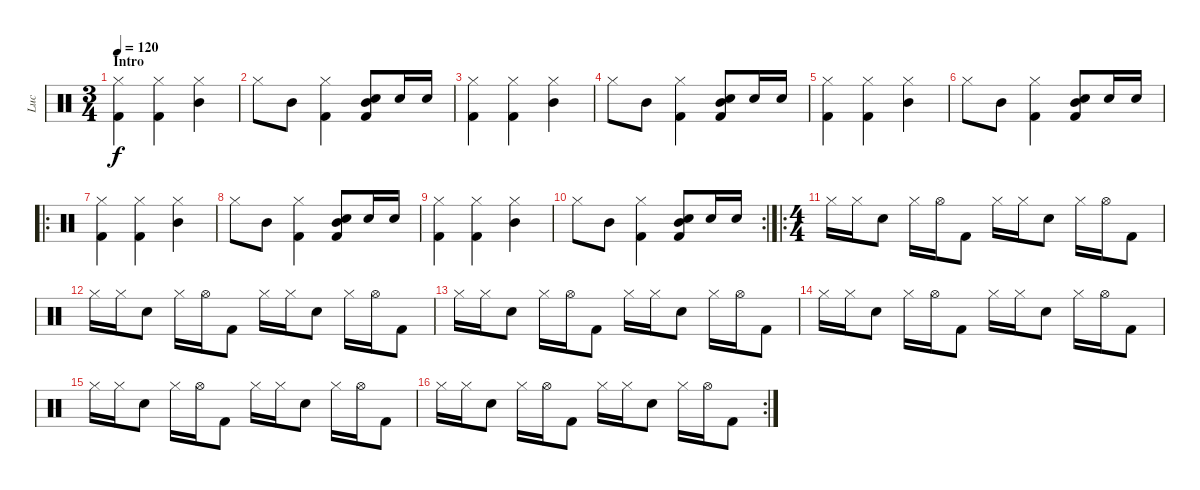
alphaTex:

\track ("Luc" "Luc") {instrument percussion}
\staff {score}
\articulation defaults
\ts (3 4)
\section ("" "Intro")
\tempo 120
\clef neutral
\ks c
("Hi-Hat (closed)" "Kick (hit) 2").4{dy f} ("Hi-Hat (closed)" "Kick (hit) 2").4 ("Hi-Hat (closed)" "Mid Tom (hit)").4 |
"Hi-Hat (closed)".8 "Mid Tom (hit)".8 ("Hi-Hat (closed)" "Kick (hit) 2").4 ("Mid Tom (hit)" "Snare (hit) 2" "Kick (hit) 2").8 "Snare (hit) 2".16 "Snare (hit) 2".16 |
("Hi-Hat (closed)" "Kick (hit) 2").4 ("Hi-Hat (closed)" "Kick (hit) 2").4 ("Hi-Hat (closed)" "Mid Tom (hit)").4 |
"Hi-Hat (closed)".8 "Mid Tom (hit)".8 ("Hi-Hat (closed)" "Kick (hit) 2").4 ("Mid Tom (hit)" "Snare (hit) 2" "Kick (hit) 2").8 "Snare (hit) 2".16 "Snare (hit) 2".16 |
("Hi-Hat (closed)" "Kick (hit) 2").4 ("Hi-Hat (closed)" "Kick (hit) 2").4 ("Hi-Hat (closed)" "Mid Tom (hit)").4 |
"Hi-Hat (closed)".8 "Mid Tom (hit)".8 ("Hi-Hat (closed)" "Kick (hit) 2").4 ("Mid Tom (hit)" "Snare (hit) 2" "Kick (hit) 2").8 "Snare (hit) 2".16 "Snare (hit) 2".16 |
\ro
("Hi-Hat (closed)" "Kick (hit) 2").4 ("Hi-Hat (closed)" "Kick (hit) 2").4 ("Hi-Hat (closed)" "Mid Tom (hit)").4 |
"Hi-Hat (closed)".8 "Mid Tom (hit)".8 ("Hi-Hat (closed)" "Kick (hit) 2").4 ("Mid Tom (hit)" "Snare (hit) 2" "Kick (hit) 2").8 "Snare (hit) 2".16 "Snare (hit) 2".16 |
("Hi-Hat (closed)" "Kick (hit) 2").4 ("Hi-Hat (closed)" "Kick (hit) 2").4 ("Hi-Hat (closed)" "Mid Tom (hit)").4 |
\rc 2 "Hi-Hat (closed)".8 "Mid Tom (hit)".8
("Hi-Hat (closed)" "Kick (hit) 2").4 ("Mid Tom (hit)" "Snare (hit) 2" "Kick (hit) 2").8 "Snare (hit) 2".16 "Snare (hit) 2".16 |
\ro
\ts (4 4)
"Hi-Hat (closed)".16 "Hi-Hat (closed)".16 "Snare (hit) 2".8 "Hi-Hat (closed)".16 "Hi-Hat (open)".16 "Kick (hit) 2".8 "Hi-Hat (closed)".16 "Hi-Hat (closed)".16 "Snare (hit) 2".8 "Hi-Hat (closed)".16 "Hi-Hat (open)".16 "Kick (hit) 2".8 |
"Hi-Hat (closed)".16 "Hi-Hat (closed)".16 "Snare (hit) 2".8 "Hi-Hat (closed)".16 "Hi-Hat (open)".16 "Kick (hit) 2".8 "Hi-Hat (closed)".16 "Hi-Hat (closed)".16 "Snare (hit) 2".8 "Hi-Hat (closed)".16 "Hi-Hat (open)".16 "Kick (hit) 2".8 |
"Hi-Hat (closed)".16 "Hi-Hat (closed)".16 "Snare (hit) 2".8 "Hi-Hat (closed)".16 "Hi-Hat (open)".16 "Kick (hit) 2".8 "Hi-Hat (closed)".16 "Hi-Hat (closed)".16 "Snare (hit) 2".8 "Hi-Hat (closed)".16 "Hi-Hat (open)".16 "Kick (hit) 2".8 |
"Hi-Hat (closed)".16 "Hi-Hat (closed)".16 "Snare (hit) 2".8 "Hi-Hat (closed)".16 "Hi-Hat (open)".16 "Kick (hit) 2".8 "Hi-Hat (closed)".16 "Hi-Hat (closed)".16 "Snare (hit) 2".8 "Hi-Hat (closed)".16 "Hi-Hat (open)".16 "Kick (hit) 2".8 |
"Hi-Hat (closed)".16 "Hi-Hat (closed)".16 "Snare (hit) 2".8 "Hi-Hat (closed)".16 "Hi-Hat (open)".16 "Kick (hit) 2".8 "Hi-Hat (closed)".16 "Hi-Hat (closed)".16 "Snare (hit) 2".8 "Hi-Hat (closed)".16 "Hi-Hat (open)".16 "Kick (hit) 2".8 |
\rc 2 "Hi-Hat (closed)".16 "Hi-Hat (closed)".16 "Snare (hit) 2".8 "Hi-Hat (closed)".16 "Hi-Hat (open)".16 "Kick (hit) 2".8 "Hi-Hat (closed)".16 "Hi-Hat (closed)".16 "Snare (hit) 2".8 "Hi-Hat (closed)".16 "Hi-Hat (open)".16 "Kick (hit) 2".8
